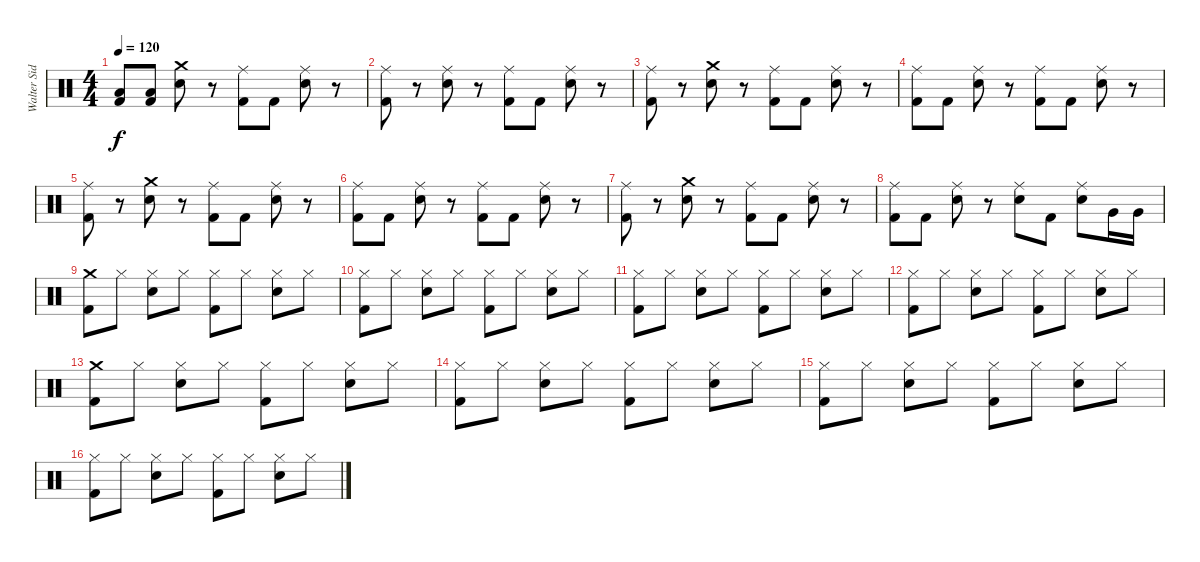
\track ("Walter Sidotti" "Walter Sid") {instrument percussion}
\staff {score}
\articulation defaults
\ts (4 4)
\tempo 120
\clef neutral
\ks c
("Kick (hit) 2" "Low Tom (hit)").8{dy f} ("Kick (hit) 2" "Low Tom (hit)").8 ("Electric Snare (hit)" "Crash medium (hit)").8 r.8 ("Kick (hit) 2" "Ride (middle)").8 "Kick (hit) 2".8 ("Electric Snare (hit)" "Ride (middle)").8 r.8 |
("Kick (hit) 2" "Ride (middle)").8 r.8 ("Electric Snare (hit)" "Ride (middle)").8 r.8 ("Kick (hit) 2" "Ride (middle)").8 "Kick (hit) 2".8 ("Electric Snare (hit)" "Ride (middle)").8 r.8 |
("Kick (hit) 2" "Ride (middle)").8 r.8 ("Electric Snare (hit)" "Crash medium (hit)").8 r.8 ("Kick (hit) 2" "Ride (middle)").8 "Kick (hit) 2".8 ("Electric Snare (hit)" "Ride (middle)").8 r.8 |
("Kick (hit) 2" "Ride (middle)").8 "Kick (hit) 2".8 ("Electric Snare (hit)" "Ride (middle)").8 r.8 ("Kick (hit) 2" "Ride (middle)").8 "Kick (hit) 2".8 ("Electric Snare (hit)" "Ride (middle)").8 r.8 |
("Kick (hit) 2" "Ride (middle)").8 r.8 ("Electric Snare (hit)" "Crash medium (hit)").8 r.8 ("Kick (hit) 2" "Ride (middle)").8 "Kick (hit) 2".8 ("Electric Snare (hit)" "Ride (middle)").8 r.8 |
("Kick (hit) 2" "Ride (middle)").8 "Kick (hit) 2".8 ("Electric Snare (hit)" "Ride (middle)").8 r.8 ("Kick (hit) 2" "Ride (middle)").8 "Kick (hit) 2".8 ("Electric Snare (hit)" "Ride (middle)").8 r.8 |
("Kick (hit) 2" "Ride (middle)").8 r.8 ("Electric Snare (hit)" "Crash medium (hit)").8 r.8 ("Kick (hit) 2" "Ride (middle)").8 "Kick (hit) 2".8 ("Electric Snare (hit)" "Ride (middle)").8 r.8 |
("Kick (hit) 2" "Ride (middle)").8 "Kick (hit) 2".8 ("Electric Snare (hit)" "Ride (middle)").8 r.8 ("Electric Snare (hit)" "Ride (middle)").8 "Kick (hit) 2".8 ("Electric Snare (hit)" "Ride (middle)").8 "Very Low Tom (hit)".16 "Very Low Tom (hit)".16 |
("Kick (hit) 2" "Crash medium (hit)").8 "Hi-Hat (closed)".8 ("Electric Snare (hit)" "Hi-Hat (closed)").8 "Hi-Hat (closed)".8 ("Kick (hit) 2" "Hi-Hat (closed)").8 "Hi-Hat (closed)".8 ("Electric Snare (hit)" "Hi-Hat (closed)").8 "Hi-Hat (closed)".8 |
("Kick (hit) 2" "Hi-Hat (closed)").8 "Hi-Hat (closed)".8 ("Electric Snare (hit)" "Hi-Hat (closed)").8 "Hi-Hat (closed)".8 ("Kick (hit) 2" "Hi-Hat (closed)").8 "Hi-Hat (closed)".8 ("Electric Snare (hit)" "Hi-Hat (closed)").8 "Hi-Hat (closed)".8 |
("Kick (hit) 2" "Hi-Hat (closed)").8 "Hi-Hat (closed)".8 ("Electric Snare (hit)" "Hi-Hat (closed)").8 "Hi-Hat (closed)".8 ("Kick (hit) 2" "Hi-Hat (closed)").8 "Hi-Hat (closed)".8 ("Electric Snare (hit)" "Hi-Hat (closed)").8 "Hi-Hat (closed)".8 |
("Kick (hit) 2" "Hi-Hat (closed)").8 "Hi-Hat (closed)".8 ("Electric Snare (hit)" "Hi-Hat (closed)").8 "Hi-Hat (closed)".8 ("Kick (hit) 2" "Hi-Hat (closed)").8 "Hi-Hat (closed)".8 ("Electric Snare (hit)" "Hi-Hat (closed)").8 "Hi-Hat (closed)".8 |
("Kick (hit) 2" "Crash medium (hit)").8 "Hi-Hat (closed)".8 ("Electric Snare (hit)" "Hi-Hat (closed)").8 "Hi-Hat (closed)".8 ("Kick (hit) 2" "Hi-Hat (closed)").8 "Hi-Hat (closed)".8 ("Electric Snare (hit)" "Hi-Hat (closed)").8 "Hi-Hat (closed)".8 |
("Kick (hit) 2" "Hi-Hat (closed)").8 "Hi-Hat (closed)".8 ("Electric Snare (hit)" "Hi-Hat (closed)").8 "Hi-Hat (closed)".8 ("Kick (hit) 2" "Hi-Hat (closed)").8 "Hi-Hat (closed)".8 ("Electric Snare (hit)" "Hi-Hat (closed)").8 "Hi-Hat (closed)".8 |
("Kick (hit) 2" "Hi-Hat (closed)").8 "Hi-Hat (closed)".8 ("Electric Snare (hit)" "Hi-Hat (closed)").8 "Hi-Hat (closed)".8 ("Kick (hit) 2" "Hi-Hat (closed)").8 "Hi-Hat (closed)".8 ("Electric Snare (hit)" "Hi-Hat (closed)").8 "Hi-Hat (closed)".8 |
("Kick (hit) 2" "Hi-Hat (closed)").8 "Hi-Hat (closed)".8 ("Electric Snare (hit)" "Hi-Hat (closed)").8 "Hi-Hat (closed)".8 ("Kick (hit) 2" "Hi-Hat (closed)").8 "Hi-Hat (closed)".8 ("Electric Snare (hit)" "Hi-Hat (closed)").8 "Hi-Hat (closed)".8
